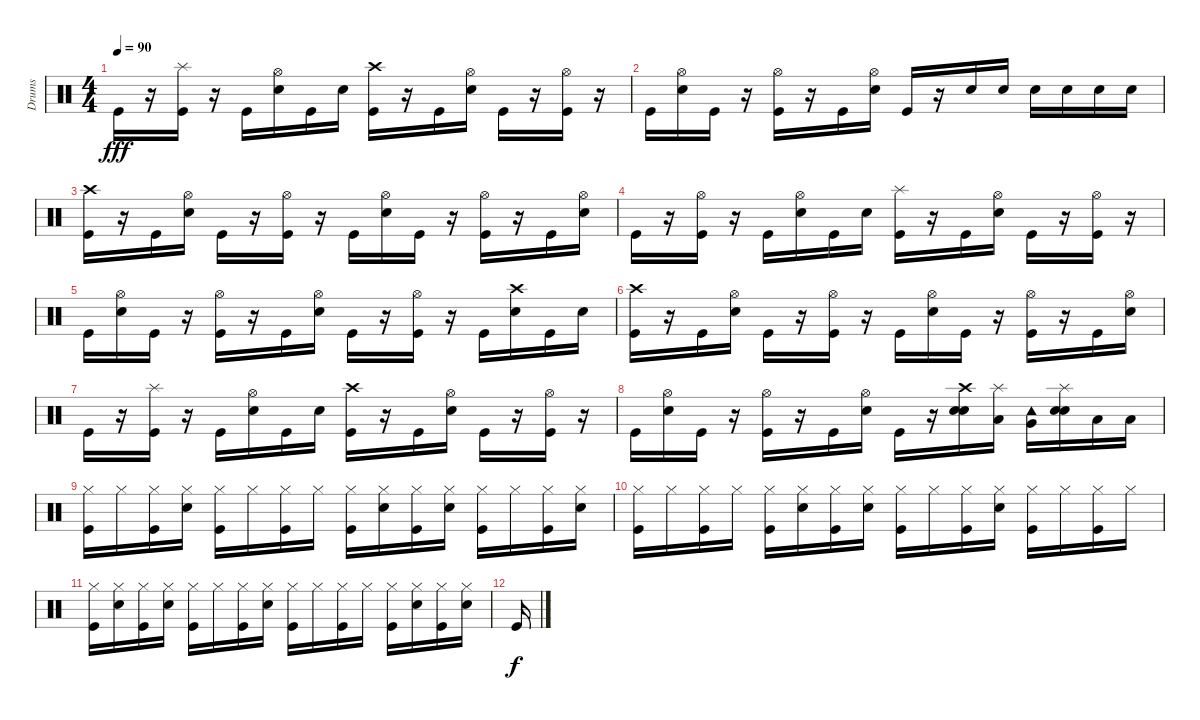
\track ("Drums" "Drums") {instrument percussion}
\staff {score}
\articulation defaults
\ts (4 4)
\tempo 90
\clef neutral
\ks c "Kick (hit)".16{dy fff}
r.16 ("Splash (hit)" "Kick (hit)").16 r.16 "Kick (hit)".16 ("Hi-Hat (open)" "Snare (hit) 2").16 "Kick (hit)".16 "Snare (hit) 2".16 ("Crash high (hit)" "Kick (hit)").16 r.16 "Kick (hit)".16 ("Hi-Hat (open)" "Snare (hit) 2").16 "Kick (hit)".16 r.16 ("Hi-Hat (open)" "Kick (hit)").16 r.16 |
"Kick (hit)".16 ("Hi-Hat (open)" "Snare (hit) 2").16 "Kick (hit)".16 r.16 ("Hi-Hat (open)" "Kick (hit)").16 r.16 "Kick (hit)".16 ("Hi-Hat (open)" "Snare (hit) 2").16 "Kick (hit)".16 r.16 "Snare (hit) 2".16 "Snare (hit) 2".16 "Snare (hit) 2".16 "Snare (hit) 2".16 "Snare (hit) 2".16 "Snare (hit) 2".16 |
("Kick (hit)" "Crash high (hit)").16 r.16 "Kick (hit)".16 ("Hi-Hat (open)" "Snare (hit) 2").16 "Kick (hit)".16 r.16 ("Hi-Hat (open)" "Kick (hit)").16 r.16 "Kick (hit)".16 ("Hi-Hat (open)" "Snare (hit) 2").16 "Kick (hit)".16 r.16 ("Hi-Hat (open)" "Kick (hit)").16 r.16 "Kick (hit)".16 ("Hi-Hat (open)" "Snare (hit) 2").16 |
"Kick (hit)".16 r.16 ("Hi-Hat (open)" "Kick (hit)").16 r.16 "Kick (hit)".16 ("Hi-Hat (open)" "Snare (hit) 2").16 "Kick (hit)".16 "Snare (hit) 2".16 ("Splash (hit)" "Kick (hit)").16 r.16 "Kick (hit)".16 ("Hi-Hat (open)" "Snare (hit) 2").16 "Kick (hit)".16 r.16 ("Hi-Hat (open)" "Kick (hit)").16 r.16 |
"Kick (hit)".16 ("Hi-Hat (open)" "Snare (hit) 2").16 "Kick (hit)".16 r.16 ("Hi-Hat (open)" "Kick (hit)").16 r.16 "Kick (hit)".16 ("Hi-Hat (open)" "Snare (hit) 2").16 "Kick (hit)".16 r.16 ("Hi-Hat (open)" "Kick (hit)").16 r.16 "Kick (hit)".16 ("Crash high (hit)" "Snare (hit) 2").16 "Kick (hit)".16 "Snare (hit) 2".16 |
("Kick (hit)" "Crash high (hit)").16 r.16 "Kick (hit)".16 ("Hi-Hat (open)" "Snare (hit) 2").16 "Kick (hit)".16 r.16 ("Hi-Hat (open)" "Kick (hit)").16 r.16 "Kick (hit)".16 ("Hi-Hat (open)" "Snare (hit) 2").16 "Kick (hit)".16 r.16 ("Hi-Hat (open)" "Kick (hit)").16 r.16 "Kick (hit)".16 ("Hi-Hat (open)" "Snare (hit) 2").16 |
"Kick (hit)".16 r.16 ("Splash (hit)" "Kick (hit)").16 r.16 "Kick (hit)".16 ("Hi-Hat (open)" "Snare (hit) 2").16 "Kick (hit)".16 "Snare (hit) 2".16 ("Crash high (hit)" "Kick (hit)").16 r.16 "Kick (hit)".16 ("Hi-Hat (open)" "Snare (hit) 2").16 "Kick (hit)".16 r.16 ("Hi-Hat (open)" "Kick (hit)").16 r.16 |
"Kick (hit)".16 ("Hi-Hat (open)" "Snare (hit) 2").16 "Kick (hit)".16 r.16 ("Hi-Hat (open)" "Kick (hit)").16 r.16 "Kick (hit)".16 ("Hi-Hat (open)" "Snare (hit) 2").16 "Kick (hit)".16 r.16 ("Snare (hit) 2" "Crash high (hit)" "Snare (hit) 2").16 ("Splash (hit)" "Low Tom (hit)").16 ("Tambourine (hit)" "Very Low Tom (hit)").16 ("Splash (hit)" "Snare (hit) 2" "Snare (hit) 2").16 "Low Floor Tom (hit)".16 "Low Floor Tom (hit)".16 |
("Kick (hit)" "Hi-Hat (closed)").16 "Hi-Hat (closed)".16 ("Hi-Hat (closed)" "Kick (hit)").16 ("Hi-Hat (closed)" "Snare (hit) 2").16 ("Hi-Hat (closed)" "Kick (hit)").16 "Hi-Hat (closed)".16 ("Hi-Hat (closed)" "Kick (hit)").16 "Hi-Hat (closed)".16 ("Hi-Hat (closed)" "Kick (hit)").16 ("Hi-Hat (closed)" "Snare (hit) 2").16 ("Hi-Hat (closed)" "Kick (hit)").16 ("Snare (hit) 2" "Hi-Hat (closed)").16 ("Kick (hit)" "Hi-Hat (closed)").16 "Hi-Hat (closed)".16 ("Hi-Hat (closed)" "Kick (hit)").16 ("Hi-Hat (closed)" "Snare (hit) 2").16 |
("Hi-Hat (closed)" "Kick (hit)").16 "Hi-Hat (closed)".16 ("Hi-Hat (closed)" "Kick (hit)").16 "Hi-Hat (closed)".16 ("Hi-Hat (closed)" "Kick (hit)").16 ("Hi-Hat (closed)" "Snare (hit) 2").16 ("Hi-Hat (closed)" "Kick (hit)").16 ("Snare (hit) 2" "Hi-Hat (closed)").16 ("Kick (hit)" "Hi-Hat (closed)").16 "Hi-Hat (closed)".16 ("Hi-Hat (closed)" "Kick (hit)").16 ("Hi-Hat (closed)" "Snare (hit) 2").16 ("Hi-Hat (closed)" "Kick (hit)").16 "Hi-Hat (closed)".16 ("Hi-Hat (closed)" "Kick (hit)").16 "Hi-Hat (closed)".16 |
("Hi-Hat (closed)" "Kick (hit)").16 ("Hi-Hat (closed)" "Snare (hit) 2").16 ("Hi-Hat (closed)" "Kick (hit)").16 ("Snare (hit) 2" "Hi-Hat (closed)").16 ("Kick (hit)" "Hi-Hat (closed)").16 "Hi-Hat (closed)".16 ("Hi-Hat (closed)" "Kick (hit)").16 ("Hi-Hat (closed)" "Snare (hit) 2").16 ("Hi-Hat (closed)" "Kick (hit)").16 "Hi-Hat (closed)".16 ("Hi-Hat (closed)" "Kick (hit)").16 "Hi-Hat (closed)".16 ("Hi-Hat (closed)" "Kick (hit)").16 ("Hi-Hat (closed)" "Snare (hit) 2").16 ("Hi-Hat (closed)" "Kick (hit)").16 ("Snare (hit) 2" "Hi-Hat (closed)").16 |
"Kick (hit)".16{dy f}
